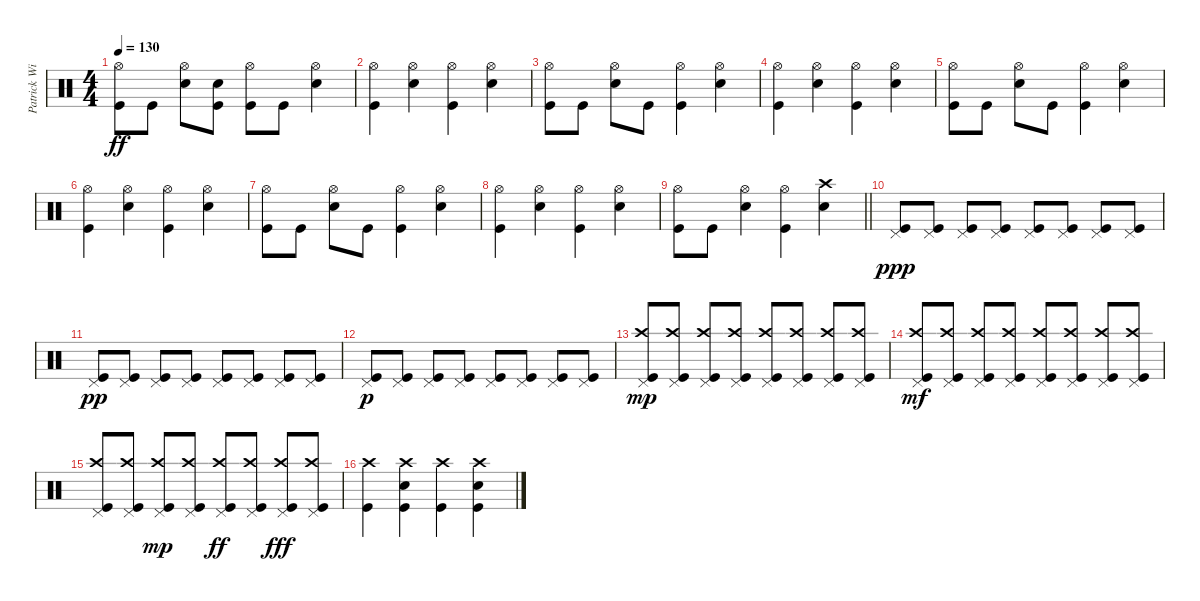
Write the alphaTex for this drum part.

\track ("Patrick Wilson" "Patrick Wi") {instrument percussion}
\staff {score}
\articulation defaults
\ts (4 4)
\tempo 130
\clef neutral
\ks c
("Hi-Hat (open)" "Kick (hit)").8{dy ff} "Kick (hit)".8 ("Hi-Hat (open)" "Electric Snare (hit)").8 ("Electric Snare (hit)" "Kick (hit)").8 ("Hi-Hat (open)" "Kick (hit)").8 "Kick (hit)".8 ("Hi-Hat (open)" "Electric Snare (hit)").4 |
("Hi-Hat (open)" "Kick (hit)").4 ("Hi-Hat (open)" "Electric Snare (hit)").4 ("Hi-Hat (open)" "Kick (hit)").4 ("Hi-Hat (open)" "Electric Snare (hit)").4 |
("Hi-Hat (open)" "Kick (hit)").8 "Kick (hit)".8 ("Hi-Hat (open)" "Electric Snare (hit)").8 "Kick (hit)".8 ("Hi-Hat (open)" "Kick (hit)").4 ("Hi-Hat (open)" "Electric Snare (hit)").4 |
("Hi-Hat (open)" "Kick (hit)").4 ("Hi-Hat (open)" "Electric Snare (hit)").4 ("Hi-Hat (open)" "Kick (hit)").4 ("Hi-Hat (open)" "Electric Snare (hit)").4 |
("Hi-Hat (open)" "Kick (hit)").8 "Kick (hit)".8 ("Hi-Hat (open)" "Electric Snare (hit)").8 "Kick (hit)".8 ("Hi-Hat (open)" "Kick (hit)").4 ("Hi-Hat (open)" "Electric Snare (hit)").4 |
("Hi-Hat (open)" "Kick (hit)").4 ("Hi-Hat (open)" "Electric Snare (hit)").4 ("Hi-Hat (open)" "Kick (hit)").4 ("Hi-Hat (open)" "Electric Snare (hit)").4 |
("Hi-Hat (open)" "Kick (hit)").8 "Kick (hit)".8 ("Hi-Hat (open)" "Electric Snare (hit)").8 "Kick (hit)".8 ("Hi-Hat (open)" "Kick (hit)").4 ("Hi-Hat (open)" "Electric Snare (hit)").4 |
("Hi-Hat (open)" "Kick (hit)").4 ("Hi-Hat (open)" "Electric Snare (hit)").4 ("Hi-Hat (open)" "Kick (hit)").4 ("Hi-Hat (open)" "Electric Snare (hit)").4 |
\barLineRight lightlight
("Hi-Hat (open)" "Kick (hit)").8 "Kick (hit)".8 ("Hi-Hat (open)" "Electric Snare (hit)").4 ("Hi-Hat (open)" "Kick (hit)").4 ("Crash high (hit)" "Electric Snare (hit)").4 |
("Pedal Hi-Hat (hit)" "Kick (hit)").8{dy ppp} ("Pedal Hi-Hat (hit)" "Kick (hit)").8 ("Pedal Hi-Hat (hit)" "Kick (hit)").8 ("Pedal Hi-Hat (hit)" "Kick (hit)").8 ("Pedal Hi-Hat (hit)" "Kick (hit)").8 ("Pedal Hi-Hat (hit)" "Kick (hit)").8 ("Pedal Hi-Hat (hit)" "Kick (hit)").8 ("Pedal Hi-Hat (hit)" "Kick (hit)").8 |
("Pedal Hi-Hat (hit)" "Kick (hit)").8{dy pp} ("Pedal Hi-Hat (hit)" "Kick (hit)").8 ("Pedal Hi-Hat (hit)" "Kick (hit)").8 ("Pedal Hi-Hat (hit)" "Kick (hit)").8 ("Pedal Hi-Hat (hit)" "Kick (hit)").8 ("Pedal Hi-Hat (hit)" "Kick (hit)").8 ("Pedal Hi-Hat (hit)" "Kick (hit)").8 ("Pedal Hi-Hat (hit)" "Kick (hit)").8 |
("Pedal Hi-Hat (hit)" "Kick (hit)").8{dy p} ("Pedal Hi-Hat (hit)" "Kick (hit)").8 ("Pedal Hi-Hat (hit)" "Kick (hit)").8 ("Pedal Hi-Hat (hit)" "Kick (hit)").8 ("Pedal Hi-Hat (hit)" "Kick (hit)").8 ("Pedal Hi-Hat (hit)" "Kick (hit)").8 ("Pedal Hi-Hat (hit)" "Kick (hit)").8 ("Pedal Hi-Hat (hit)" "Kick (hit)").8 |
("Pedal Hi-Hat (hit)" "Crash high (hit)" "Kick (hit)").8{dy mp} ("Pedal Hi-Hat (hit)" "Crash high (hit)" "Kick (hit)").8 ("Pedal Hi-Hat (hit)" "Crash high (hit)" "Kick (hit)").8 ("Pedal Hi-Hat (hit)" "Crash high (hit)" "Kick (hit)").8 ("Pedal Hi-Hat (hit)" "Crash high (hit)" "Kick (hit)").8 ("Pedal Hi-Hat (hit)" "Crash high (hit)" "Kick (hit)").8 ("Pedal Hi-Hat (hit)" "Crash high (hit)" "Kick (hit)").8 ("Pedal Hi-Hat (hit)" "Crash high (hit)" "Kick (hit)").8 |
("Pedal Hi-Hat (hit)" "Crash high (hit)" "Kick (hit)").8{dy mf} ("Pedal Hi-Hat (hit)" "Crash high (hit)" "Kick (hit)").8 ("Pedal Hi-Hat (hit)" "Crash high (hit)" "Kick (hit)").8 ("Pedal Hi-Hat (hit)" "Crash high (hit)" "Kick (hit)").8 ("Pedal Hi-Hat (hit)" "Crash high (hit)" "Kick (hit)").8 ("Pedal Hi-Hat (hit)" "Crash high (hit)" "Kick (hit)").8 ("Pedal Hi-Hat (hit)" "Crash high (hit)" "Kick (hit)").8 ("Pedal Hi-Hat (hit)" "Crash high (hit)" "Kick (hit)").8 |
("Pedal Hi-Hat (hit)" "Crash high (hit)" "Kick (hit)").8 ("Pedal Hi-Hat (hit)" "Crash high (hit)" "Kick (hit)").8 ("Pedal Hi-Hat (hit)" "Crash high (hit)" "Kick (hit)").8{dy mp} ("Pedal Hi-Hat (hit)" "Crash high (hit)" "Kick (hit)").8 ("Pedal Hi-Hat (hit)" "Crash high (hit)" "Kick (hit)").8{dy ff} ("Pedal Hi-Hat (hit)" "Crash high (hit)" "Kick (hit)").8 ("Pedal Hi-Hat (hit)" "Crash high (hit)" "Kick (hit)").8{dy fff} ("Pedal Hi-Hat (hit)" "Crash high (hit)" "Kick (hit)").8 |
("Crash high (hit)" "Kick (hit)").4 ("Crash high (hit)" "Electric Snare (hit)" "Kick (hit)").4 ("Crash high (hit)" "Kick (hit)").4 ("Crash high (hit)" "Electric Snare (hit)" "Kick (hit)").4
